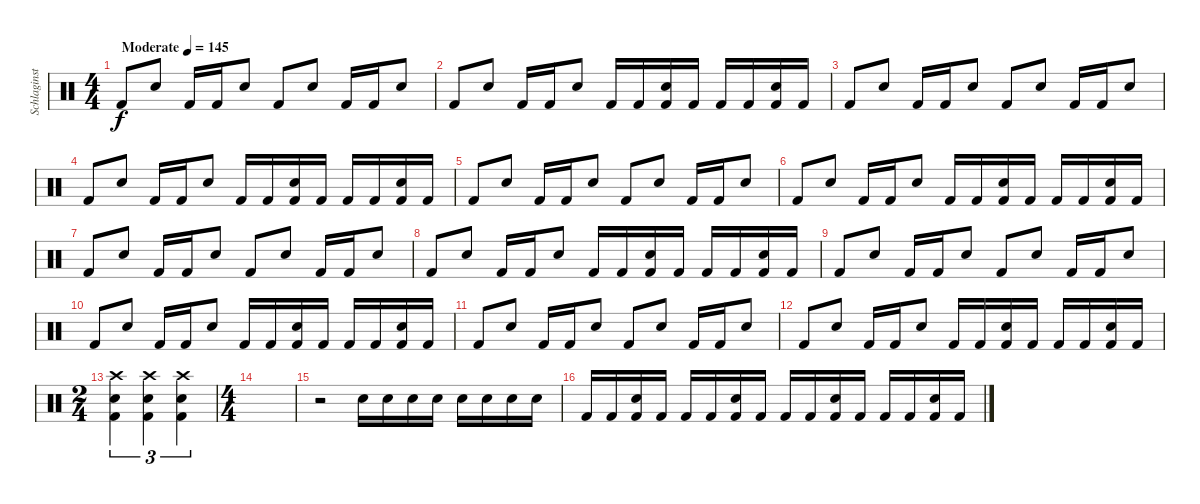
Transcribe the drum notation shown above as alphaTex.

\track ("Schlaginstrumente - Auswahl" "Schlaginst") {instrument percussion}
\staff {score}
\articulation defaults
\ts (4 4)
\tempo (145 "Moderate")
\clef neutral
\ks c "Kick (hit) 2".8{dy f} "Snare (hit) 2".8 "Kick (hit) 2".16 "Kick (hit) 2".16 "Snare (hit) 2".8 "Kick (hit) 2".8 "Snare (hit) 2".8 "Kick (hit) 2".16 "Kick (hit) 2".16 "Snare (hit) 2".8
|
"Kick (hit) 2".8 "Snare (hit) 2".8 "Kick (hit) 2".16 "Kick (hit) 2".16 "Snare (hit) 2".8 "Kick (hit) 2".16 "Kick (hit) 2".16 ("Snare (hit) 2" "Kick (hit) 2").16 "Kick (hit) 2".16 "Kick (hit) 2".16 "Kick (hit) 2".16 ("Snare (hit) 2" "Kick (hit) 2").16 "Kick (hit) 2".16 |
"Kick (hit) 2".8 "Snare (hit) 2".8 "Kick (hit) 2".16 "Kick (hit) 2".16 "Snare (hit) 2".8 "Kick (hit) 2".8 "Snare (hit) 2".8 "Kick (hit) 2".16 "Kick (hit) 2".16 "Snare (hit) 2".8 |
"Kick (hit) 2".8 "Snare (hit) 2".8 "Kick (hit) 2".16 "Kick (hit) 2".16 "Snare (hit) 2".8 "Kick (hit) 2".16 "Kick (hit) 2".16 ("Snare (hit) 2" "Kick (hit) 2").16 "Kick (hit) 2".16 "Kick (hit) 2".16 "Kick (hit) 2".16 ("Snare (hit) 2" "Kick (hit) 2").16 "Kick (hit) 2".16 |
"Kick (hit) 2".8 "Snare (hit) 2".8 "Kick (hit) 2".16 "Kick (hit) 2".16 "Snare (hit) 2".8 "Kick (hit) 2".8 "Snare (hit) 2".8 "Kick (hit) 2".16 "Kick (hit) 2".16 "Snare (hit) 2".8 |
"Kick (hit) 2".8 "Snare (hit) 2".8 "Kick (hit) 2".16 "Kick (hit) 2".16 "Snare (hit) 2".8 "Kick (hit) 2".16 "Kick (hit) 2".16 ("Snare (hit) 2" "Kick (hit) 2").16 "Kick (hit) 2".16 "Kick (hit) 2".16 "Kick (hit) 2".16 ("Snare (hit) 2" "Kick (hit) 2").16 "Kick (hit) 2".16 |
"Kick (hit) 2".8 "Snare (hit) 2".8 "Kick (hit) 2".16 "Kick (hit) 2".16 "Snare (hit) 2".8 "Kick (hit) 2".8 "Snare (hit) 2".8 "Kick (hit) 2".16 "Kick (hit) 2".16 "Snare (hit) 2".8 |
"Kick (hit) 2".8 "Snare (hit) 2".8 "Kick (hit) 2".16 "Kick (hit) 2".16 "Snare (hit) 2".8 "Kick (hit) 2".16 "Kick (hit) 2".16 ("Snare (hit) 2" "Kick (hit) 2").16 "Kick (hit) 2".16 "Kick (hit) 2".16 "Kick (hit) 2".16 ("Snare (hit) 2" "Kick (hit) 2").16 "Kick (hit) 2".16 |
"Kick (hit) 2".8 "Snare (hit) 2".8 "Kick (hit) 2".16 "Kick (hit) 2".16 "Snare (hit) 2".8 "Kick (hit) 2".8 "Snare (hit) 2".8 "Kick (hit) 2".16 "Kick (hit) 2".16 "Snare (hit) 2".8 |
"Kick (hit) 2".8 "Snare (hit) 2".8 "Kick (hit) 2".16 "Kick (hit) 2".16 "Snare (hit) 2".8 "Kick (hit) 2".16 "Kick (hit) 2".16 ("Snare (hit) 2" "Kick (hit) 2").16 "Kick (hit) 2".16 "Kick (hit) 2".16 "Kick (hit) 2".16 ("Snare (hit) 2" "Kick (hit) 2").16 "Kick (hit) 2".16 |
"Kick (hit) 2".8 "Snare (hit) 2".8 "Kick (hit) 2".16 "Kick (hit) 2".16 "Snare (hit) 2".8 "Kick (hit) 2".8 "Snare (hit) 2".8 "Kick (hit) 2".16 "Kick (hit) 2".16 "Snare (hit) 2".8 |
"Kick (hit) 2".8 "Snare (hit) 2".8 "Kick (hit) 2".16 "Kick (hit) 2".16 "Snare (hit) 2".8 "Kick (hit) 2".16 "Kick (hit) 2".16 ("Snare (hit) 2" "Kick (hit) 2").16 "Kick (hit) 2".16 "Kick (hit) 2".16 "Kick (hit) 2".16 ("Snare (hit) 2" "Kick (hit) 2").16 "Kick (hit) 2".16 |
\ts (2 4)
("Crash high (hit)" "Snare (hit) 2" "Kick (hit) 2").4{tu (3 2)} ("Crash high (hit)" "Snare (hit) 2" "Kick (hit) 2").4{tu (3 2)} ("Crash high (hit)" "Snare (hit) 2" "Kick (hit) 2").4{tu (3 2)} |
\ts (4 4)
|
r.2 "Snare (hit) 2".16 "Snare (hit) 2".16 "Snare (hit) 2".16 "Snare (hit) 2".16 "Snare (hit) 2".16 "Snare (hit) 2".16 "Snare (hit) 2".16 "Snare (hit) 2".16 |
"Kick (hit) 2".16 "Kick (hit) 2".16 ("Snare (hit) 2" "Kick (hit) 2").16 "Kick (hit) 2".16 "Kick (hit) 2".16 "Kick (hit) 2".16 ("Snare (hit) 2" "Kick (hit) 2").16 "Kick (hit) 2".16 "Kick (hit) 2".16 "Kick (hit) 2".16 ("Snare (hit) 2" "Kick (hit) 2").16 "Kick (hit) 2".16 "Kick (hit) 2".16 "Kick (hit) 2".16 ("Snare (hit) 2" "Kick (hit) 2").16 "Kick (hit) 2".16
